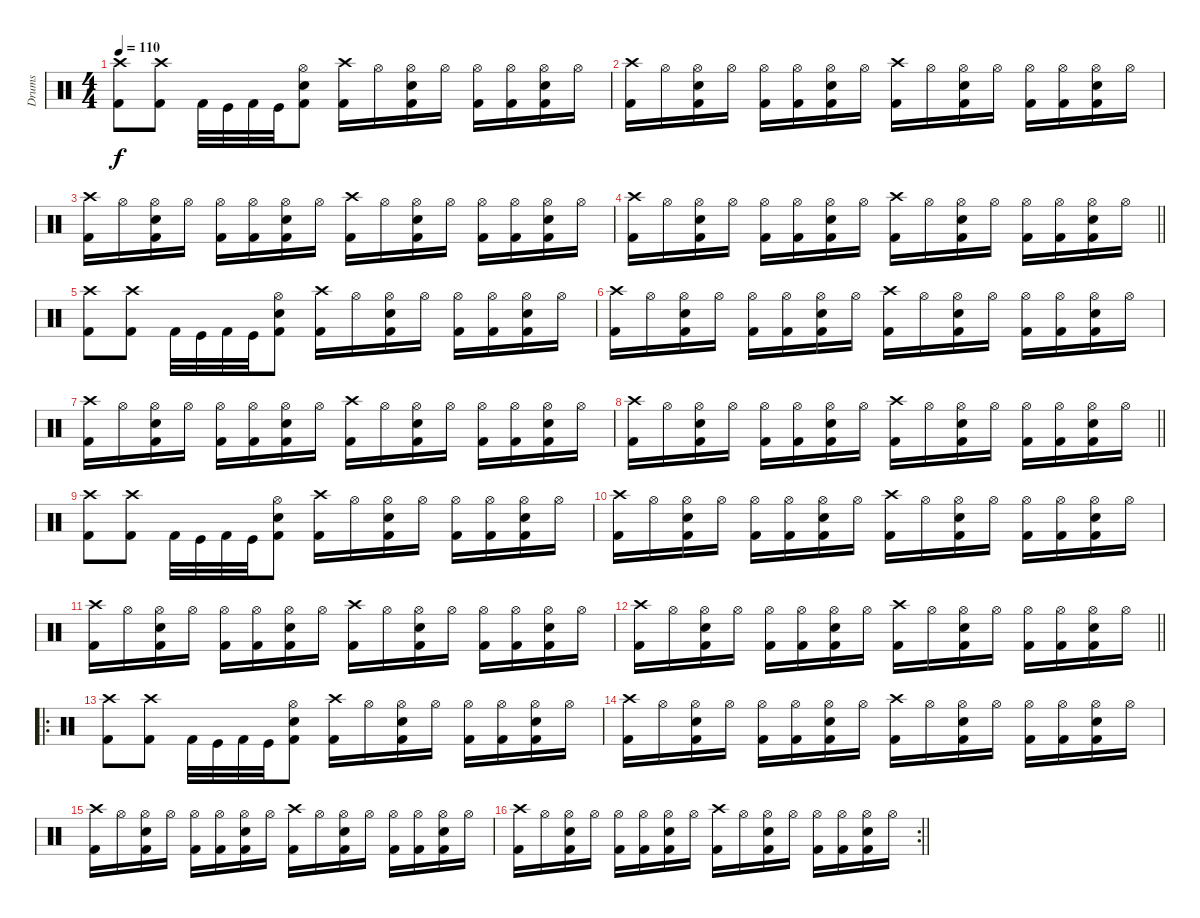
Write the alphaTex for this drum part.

\track ("Drums" "Drums") {instrument percussion}
\staff {score}
\articulation defaults
\ts (4 4)
\tempo 110
\clef neutral
\ks c
("Kick (hit) 2" "Crash high (hit)").8{dy f} ("Kick (hit) 2" "Crash high (hit)").8 "Kick (hit) 2".32 "Kick (hit)".32 "Kick (hit) 2".32 "Kick (hit)".32 ("Kick (hit) 2" "Snare (hit) 2" "Hi-Hat (open)").8 ("Kick (hit) 2" "Crash high (hit)").16 "Hi-Hat (open)".16 ("Kick (hit) 2" "Snare (hit) 2" "Hi-Hat (open)").16 "Hi-Hat (open)".16 ("Kick (hit) 2" "Hi-Hat (open)").16 ("Kick (hit) 2" "Hi-Hat (open)").16 ("Kick (hit) 2" "Snare (hit) 2" "Hi-Hat (open)").16 "Hi-Hat (open)".16 |
("Kick (hit) 2" "Crash high (hit)").16 "Hi-Hat (open)".16 ("Kick (hit) 2" "Snare (hit) 2" "Hi-Hat (open)").16 "Hi-Hat (open)".16 ("Kick (hit) 2" "Hi-Hat (open)").16 ("Kick (hit) 2" "Hi-Hat (open)").16 ("Kick (hit) 2" "Snare (hit) 2" "Hi-Hat (open)").16 "Hi-Hat (open)".16 ("Kick (hit) 2" "Crash high (hit)").16 "Hi-Hat (open)".16 ("Kick (hit) 2" "Snare (hit) 2" "Hi-Hat (open)").16 "Hi-Hat (open)".16 ("Kick (hit) 2" "Hi-Hat (open)").16 ("Kick (hit) 2" "Hi-Hat (open)").16 ("Kick (hit) 2" "Snare (hit) 2" "Hi-Hat (open)").16 "Hi-Hat (open)".16 |
("Kick (hit) 2" "Crash high (hit)").16 "Hi-Hat (open)".16 ("Kick (hit) 2" "Snare (hit) 2" "Hi-Hat (open)").16 "Hi-Hat (open)".16 ("Kick (hit) 2" "Hi-Hat (open)").16 ("Kick (hit) 2" "Hi-Hat (open)").16 ("Kick (hit) 2" "Snare (hit) 2" "Hi-Hat (open)").16 "Hi-Hat (open)".16 ("Kick (hit) 2" "Crash high (hit)").16 "Hi-Hat (open)".16 ("Kick (hit) 2" "Snare (hit) 2" "Hi-Hat (open)").16 "Hi-Hat (open)".16 ("Kick (hit) 2" "Hi-Hat (open)").16 ("Kick (hit) 2" "Hi-Hat (open)").16 ("Kick (hit) 2" "Snare (hit) 2" "Hi-Hat (open)").16 "Hi-Hat (open)".16 |
\barLineRight lightlight
("Kick (hit) 2" "Crash high (hit)").16 "Hi-Hat (open)".16 ("Kick (hit) 2" "Snare (hit) 2" "Hi-Hat (open)").16 "Hi-Hat (open)".16 ("Kick (hit) 2" "Hi-Hat (open)").16 ("Kick (hit) 2" "Hi-Hat (open)").16 ("Kick (hit) 2" "Snare (hit) 2" "Hi-Hat (open)").16 "Hi-Hat (open)".16 ("Kick (hit) 2" "Crash high (hit)").16 "Hi-Hat (open)".16 ("Kick (hit) 2" "Snare (hit) 2" "Hi-Hat (open)").16 "Hi-Hat (open)".16 ("Kick (hit) 2" "Hi-Hat (open)").16 ("Kick (hit) 2" "Hi-Hat (open)").16 ("Kick (hit) 2" "Snare (hit) 2" "Hi-Hat (open)").16 "Hi-Hat (open)".16 |
("Kick (hit) 2" "Crash high (hit)").8 ("Kick (hit) 2" "Crash high (hit)").8 "Kick (hit) 2".32 "Kick (hit)".32 "Kick (hit) 2".32 "Kick (hit)".32 ("Kick (hit) 2" "Snare (hit) 2" "Hi-Hat (open)").8 ("Kick (hit) 2" "Crash high (hit)").16 "Hi-Hat (open)".16 ("Kick (hit) 2" "Snare (hit) 2" "Hi-Hat (open)").16 "Hi-Hat (open)".16 ("Kick (hit) 2" "Hi-Hat (open)").16 ("Kick (hit) 2" "Hi-Hat (open)").16 ("Kick (hit) 2" "Snare (hit) 2" "Hi-Hat (open)").16 "Hi-Hat (open)".16 |
("Kick (hit) 2" "Crash high (hit)").16 "Hi-Hat (open)".16 ("Kick (hit) 2" "Snare (hit) 2" "Hi-Hat (open)").16 "Hi-Hat (open)".16 ("Kick (hit) 2" "Hi-Hat (open)").16 ("Kick (hit) 2" "Hi-Hat (open)").16 ("Kick (hit) 2" "Snare (hit) 2" "Hi-Hat (open)").16 "Hi-Hat (open)".16 ("Kick (hit) 2" "Crash high (hit)").16 "Hi-Hat (open)".16 ("Kick (hit) 2" "Snare (hit) 2" "Hi-Hat (open)").16 "Hi-Hat (open)".16 ("Kick (hit) 2" "Hi-Hat (open)").16 ("Kick (hit) 2" "Hi-Hat (open)").16 ("Kick (hit) 2" "Snare (hit) 2" "Hi-Hat (open)").16 "Hi-Hat (open)".16 |
("Kick (hit) 2" "Crash high (hit)").16 "Hi-Hat (open)".16 ("Kick (hit) 2" "Snare (hit) 2" "Hi-Hat (open)").16 "Hi-Hat (open)".16 ("Kick (hit) 2" "Hi-Hat (open)").16 ("Kick (hit) 2" "Hi-Hat (open)").16 ("Kick (hit) 2" "Snare (hit) 2" "Hi-Hat (open)").16 "Hi-Hat (open)".16 ("Kick (hit) 2" "Crash high (hit)").16 "Hi-Hat (open)".16 ("Kick (hit) 2" "Snare (hit) 2" "Hi-Hat (open)").16 "Hi-Hat (open)".16 ("Kick (hit) 2" "Hi-Hat (open)").16 ("Kick (hit) 2" "Hi-Hat (open)").16 ("Kick (hit) 2" "Snare (hit) 2" "Hi-Hat (open)").16 "Hi-Hat (open)".16 |
\barLineRight lightlight
("Kick (hit) 2" "Crash high (hit)").16 "Hi-Hat (open)".16 ("Kick (hit) 2" "Snare (hit) 2" "Hi-Hat (open)").16 "Hi-Hat (open)".16 ("Kick (hit) 2" "Hi-Hat (open)").16 ("Kick (hit) 2" "Hi-Hat (open)").16 ("Kick (hit) 2" "Snare (hit) 2" "Hi-Hat (open)").16 "Hi-Hat (open)".16 ("Kick (hit) 2" "Crash high (hit)").16 "Hi-Hat (open)".16 ("Kick (hit) 2" "Snare (hit) 2" "Hi-Hat (open)").16 "Hi-Hat (open)".16 ("Kick (hit) 2" "Hi-Hat (open)").16 ("Kick (hit) 2" "Hi-Hat (open)").16 ("Kick (hit) 2" "Snare (hit) 2" "Hi-Hat (open)").16 "Hi-Hat (open)".16 |
("Kick (hit) 2" "Crash high (hit)").8 ("Kick (hit) 2" "Crash high (hit)").8 "Kick (hit) 2".32 "Kick (hit)".32 "Kick (hit) 2".32 "Kick (hit)".32 ("Kick (hit) 2" "Snare (hit) 2" "Hi-Hat (open)").8 ("Kick (hit) 2" "Crash high (hit)").16 "Hi-Hat (open)".16 ("Kick (hit) 2" "Snare (hit) 2" "Hi-Hat (open)").16 "Hi-Hat (open)".16 ("Kick (hit) 2" "Hi-Hat (open)").16 ("Kick (hit) 2" "Hi-Hat (open)").16 ("Kick (hit) 2" "Snare (hit) 2" "Hi-Hat (open)").16 "Hi-Hat (open)".16 |
("Kick (hit) 2" "Crash high (hit)").16 "Hi-Hat (open)".16 ("Kick (hit) 2" "Snare (hit) 2" "Hi-Hat (open)").16 "Hi-Hat (open)".16 ("Kick (hit) 2" "Hi-Hat (open)").16 ("Kick (hit) 2" "Hi-Hat (open)").16 ("Kick (hit) 2" "Snare (hit) 2" "Hi-Hat (open)").16 "Hi-Hat (open)".16 ("Kick (hit) 2" "Crash high (hit)").16 "Hi-Hat (open)".16 ("Kick (hit) 2" "Snare (hit) 2" "Hi-Hat (open)").16 "Hi-Hat (open)".16 ("Kick (hit) 2" "Hi-Hat (open)").16 ("Kick (hit) 2" "Hi-Hat (open)").16 ("Kick (hit) 2" "Snare (hit) 2" "Hi-Hat (open)").16 "Hi-Hat (open)".16 |
("Kick (hit) 2" "Crash high (hit)").16 "Hi-Hat (open)".16 ("Kick (hit) 2" "Snare (hit) 2" "Hi-Hat (open)").16 "Hi-Hat (open)".16 ("Kick (hit) 2" "Hi-Hat (open)").16 ("Kick (hit) 2" "Hi-Hat (open)").16 ("Kick (hit) 2" "Snare (hit) 2" "Hi-Hat (open)").16 "Hi-Hat (open)".16 ("Kick (hit) 2" "Crash high (hit)").16 "Hi-Hat (open)".16 ("Kick (hit) 2" "Snare (hit) 2" "Hi-Hat (open)").16 "Hi-Hat (open)".16 ("Kick (hit) 2" "Hi-Hat (open)").16 ("Kick (hit) 2" "Hi-Hat (open)").16 ("Kick (hit) 2" "Snare (hit) 2" "Hi-Hat (open)").16 "Hi-Hat (open)".16 |
\barLineRight lightlight
("Kick (hit) 2" "Crash high (hit)").16 "Hi-Hat (open)".16 ("Kick (hit) 2" "Snare (hit) 2" "Hi-Hat (open)").16 "Hi-Hat (open)".16 ("Kick (hit) 2" "Hi-Hat (open)").16 ("Kick (hit) 2" "Hi-Hat (open)").16 ("Kick (hit) 2" "Snare (hit) 2" "Hi-Hat (open)").16 "Hi-Hat (open)".16 ("Kick (hit) 2" "Crash high (hit)").16 "Hi-Hat (open)".16 ("Kick (hit) 2" "Snare (hit) 2" "Hi-Hat (open)").16 "Hi-Hat (open)".16 ("Kick (hit) 2" "Hi-Hat (open)").16 ("Kick (hit) 2" "Hi-Hat (open)").16 ("Kick (hit) 2" "Snare (hit) 2" "Hi-Hat (open)").16 "Hi-Hat (open)".16 |
\ro
("Kick (hit) 2" "Crash high (hit)").8 ("Kick (hit) 2" "Crash high (hit)").8 "Kick (hit) 2".32 "Kick (hit)".32 "Kick (hit) 2".32 "Kick (hit)".32 ("Kick (hit) 2" "Snare (hit) 2" "Hi-Hat (open)").8 ("Kick (hit) 2" "Crash high (hit)").16 "Hi-Hat (open)".16 ("Kick (hit) 2" "Snare (hit) 2" "Hi-Hat (open)").16 "Hi-Hat (open)".16 ("Kick (hit) 2" "Hi-Hat (open)").16 ("Kick (hit) 2" "Hi-Hat (open)").16 ("Kick (hit) 2" "Snare (hit) 2" "Hi-Hat (open)").16 "Hi-Hat (open)".16 |
("Kick (hit) 2" "Crash high (hit)").16 "Hi-Hat (open)".16 ("Kick (hit) 2" "Snare (hit) 2" "Hi-Hat (open)").16 "Hi-Hat (open)".16 ("Kick (hit) 2" "Hi-Hat (open)").16 ("Kick (hit) 2" "Hi-Hat (open)").16 ("Kick (hit) 2" "Snare (hit) 2" "Hi-Hat (open)").16 "Hi-Hat (open)".16 ("Kick (hit) 2" "Crash high (hit)").16 "Hi-Hat (open)".16 ("Kick (hit) 2" "Snare (hit) 2" "Hi-Hat (open)").16 "Hi-Hat (open)".16 ("Kick (hit) 2" "Hi-Hat (open)").16 ("Kick (hit) 2" "Hi-Hat (open)").16 ("Kick (hit) 2" "Snare (hit) 2" "Hi-Hat (open)").16 "Hi-Hat (open)".16 |
("Kick (hit) 2" "Crash high (hit)").16 "Hi-Hat (open)".16 ("Kick (hit) 2" "Snare (hit) 2" "Hi-Hat (open)").16 "Hi-Hat (open)".16 ("Kick (hit) 2" "Hi-Hat (open)").16 ("Kick (hit) 2" "Hi-Hat (open)").16 ("Kick (hit) 2" "Snare (hit) 2" "Hi-Hat (open)").16 "Hi-Hat (open)".16 ("Kick (hit) 2" "Crash high (hit)").16 "Hi-Hat (open)".16 ("Kick (hit) 2" "Snare (hit) 2" "Hi-Hat (open)").16 "Hi-Hat (open)".16 ("Kick (hit) 2" "Hi-Hat (open)").16 ("Kick (hit) 2" "Hi-Hat (open)").16 ("Kick (hit) 2" "Snare (hit) 2" "Hi-Hat (open)").16 "Hi-Hat (open)".16 |
\rc 2
\barLineRight lightlight
("Kick (hit) 2" "Crash high (hit)").16 "Hi-Hat (open)".16 ("Kick (hit) 2" "Snare (hit) 2" "Hi-Hat (open)").16 "Hi-Hat (open)".16 ("Kick (hit) 2" "Hi-Hat (open)").16 ("Kick (hit) 2" "Hi-Hat (open)").16 ("Kick (hit) 2" "Snare (hit) 2" "Hi-Hat (open)").16 "Hi-Hat (open)".16 ("Kick (hit) 2" "Crash high (hit)").16 "Hi-Hat (open)".16 ("Kick (hit) 2" "Snare (hit) 2" "Hi-Hat (open)").16 "Hi-Hat (open)".16 ("Kick (hit) 2" "Hi-Hat (open)").16 ("Kick (hit) 2" "Hi-Hat (open)").16 ("Kick (hit) 2" "Snare (hit) 2" "Hi-Hat (open)").16 "Hi-Hat (open)".16
